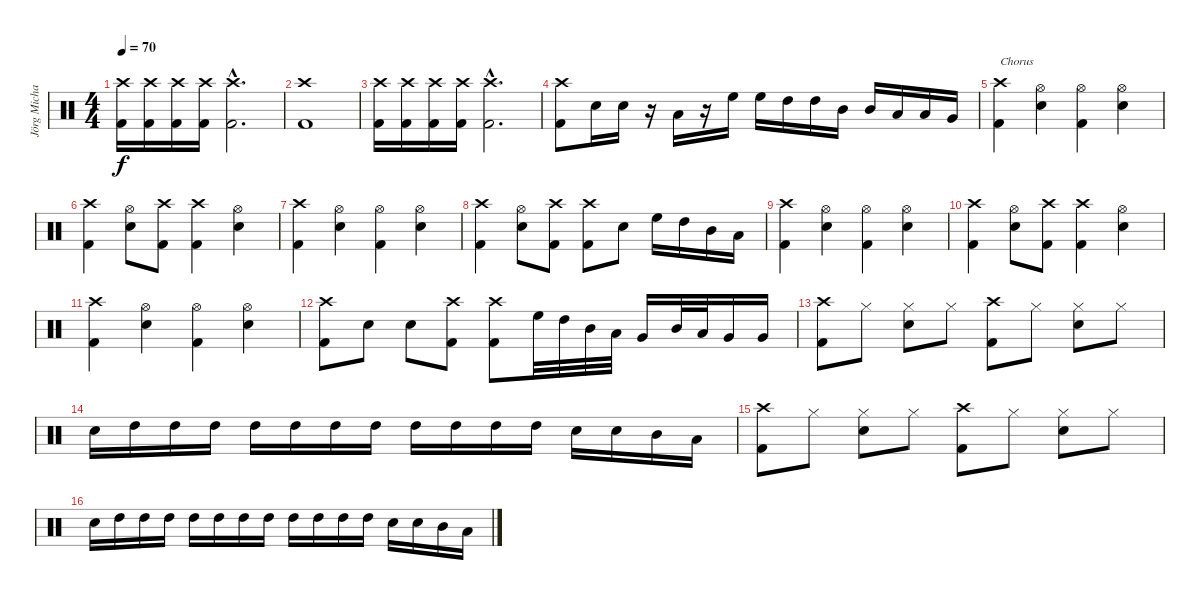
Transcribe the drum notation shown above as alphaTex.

\track ("Jörg Michael (Drums)" "Jörg Micha") {instrument percussion}
\staff {score}
\articulation defaults
\ts (4 4)
\tempo 70
\clef neutral
\ks c
("Crash high (hit)" "Kick (hit) 2").16{dy f} ("Crash high (hit)" "Kick (hit) 2").16 ("Crash high (hit)" "Kick (hit) 2").16 ("Crash high (hit)" "Kick (hit) 2").16 ("Crash high (hit)"{hac} "Kick (hit) 2"{hac}).2{d} |
("Crash high (hit)" "Kick (hit) 2").1 |
("Crash high (hit)" "Kick (hit) 2").16 ("Crash high (hit)" "Kick (hit) 2").16 ("Crash high (hit)" "Kick (hit) 2").16 ("Crash high (hit)" "Kick (hit) 2").16 ("Crash high (hit)"{hac} "Kick (hit) 2"{hac}).2{d} |
("Crash high (hit)" "Kick (hit) 2").8 "Snare (hit) 2".16 "Snare (hit) 2".16 r.16 "Low Tom (hit)".16 r.16 "High Floor Tom (hit)".16 "High Floor Tom (hit)".16 "High Tom (hit)".16 "High Tom (hit)".16 "Mid Tom (hit)".16 "Mid Tom (hit)".16 "Low Tom (hit)".16 "Low Tom (hit)".16 "Very Low Tom (hit)".16 |
("Crash high (hit)" "Kick (hit) 2").4{txt "Chorus"} ("Hi-Hat (open)" "Snare (hit) 2").4 ("Hi-Hat (open)" "Kick (hit) 2").4 ("Hi-Hat (open)" "Snare (hit) 2").4 |
("Crash high (hit)" "Kick (hit) 2").4 ("Hi-Hat (open)" "Snare (hit) 2").8 ("Crash high (hit)" "Kick (hit) 2").8 ("Crash high (hit)" "Kick (hit) 2").4 ("Hi-Hat (open)" "Snare (hit) 2").4 |
("Crash high (hit)" "Kick (hit) 2").4 ("Hi-Hat (open)" "Snare (hit) 2").4 ("Hi-Hat (open)" "Kick (hit) 2").4 ("Hi-Hat (open)" "Snare (hit) 2").4 |
("Crash high (hit)" "Kick (hit) 2").4 ("Hi-Hat (open)" "Snare (hit) 2").8 ("Crash high (hit)" "Kick (hit) 2").8 ("Crash high (hit)" "Kick (hit) 2").8 "Snare (hit) 2".8 "High Floor Tom (hit)".16 "High Tom (hit)".16 "Mid Tom (hit)".16 "Low Tom (hit)".16 |
("Crash high (hit)" "Kick (hit) 2").4 ("Hi-Hat (open)" "Snare (hit) 2").4 ("Hi-Hat (open)" "Kick (hit) 2").4 ("Hi-Hat (open)" "Snare (hit) 2").4 |
("Crash high (hit)" "Kick (hit) 2").4 ("Hi-Hat (open)" "Snare (hit) 2").8 ("Crash high (hit)" "Kick (hit) 2").8 ("Crash high (hit)" "Kick (hit) 2").4 ("Hi-Hat (open)" "Snare (hit) 2").4 |
("Crash high (hit)" "Kick (hit) 2").4 ("Hi-Hat (open)" "Snare (hit) 2").4 ("Hi-Hat (open)" "Kick (hit) 2").4 ("Hi-Hat (open)" "Snare (hit) 2").4 |
("Crash high (hit)" "Kick (hit) 2").8 "Snare (hit) 2".8 "Snare (hit) 2".8 ("Crash high (hit)" "Kick (hit) 2").8 ("Crash high (hit)" "Kick (hit) 2").8 "High Floor Tom (hit)".32 "High Tom (hit)".32 "Mid Tom (hit)".32 "Low Tom (hit)".32 "Very Low Tom (hit)".16 "Mid Tom (hit)".32 "Low Tom (hit)".32 "Very Low Tom (hit)".16 "Very Low Tom (hit)".16 |
("Crash high (hit)" "Kick (hit) 2").8 "Hi-Hat (closed)".8 ("Hi-Hat (closed)" "Snare (hit) 2").8 "Hi-Hat (closed)".8 ("Crash high (hit)" "Kick (hit) 2").8 "Hi-Hat (closed)".8 ("Hi-Hat (closed)" "Snare (hit) 2").8 "Hi-Hat (closed)".8 |
"Snare (hit) 2".16 "High Tom (hit)".16 "High Tom (hit)".16 "High Tom (hit)".16 "High Tom (hit)".16 "High Tom (hit)".16 "High Tom (hit)".16 "High Tom (hit)".16 "High Tom (hit)".16 "High Tom (hit)".16 "High Tom (hit)".16 "High Tom (hit)".16 "Snare (hit) 2".16 "Snare (hit) 2".16 "Mid Tom (hit)".16 "Low Tom (hit)".16 |
("Crash high (hit)" "Kick (hit) 2").8 "Hi-Hat (closed)".8 ("Hi-Hat (closed)" "Snare (hit) 2").8 "Hi-Hat (closed)".8 ("Crash high (hit)" "Kick (hit) 2").8 "Hi-Hat (closed)".8 ("Hi-Hat (closed)" "Snare (hit) 2").8 "Hi-Hat (closed)".8 |
"Snare (hit) 2".16 "High Tom (hit)".16 "High Tom (hit)".16 "High Tom (hit)".16 "High Tom (hit)".16 "High Tom (hit)".16 "High Tom (hit)".16 "High Tom (hit)".16 "High Tom (hit)".16 "High Tom (hit)".16 "High Tom (hit)".16 "High Tom (hit)".16 "Snare (hit) 2".16 "Snare (hit) 2".16 "Mid Tom (hit)".16 "Low Tom (hit)".16
